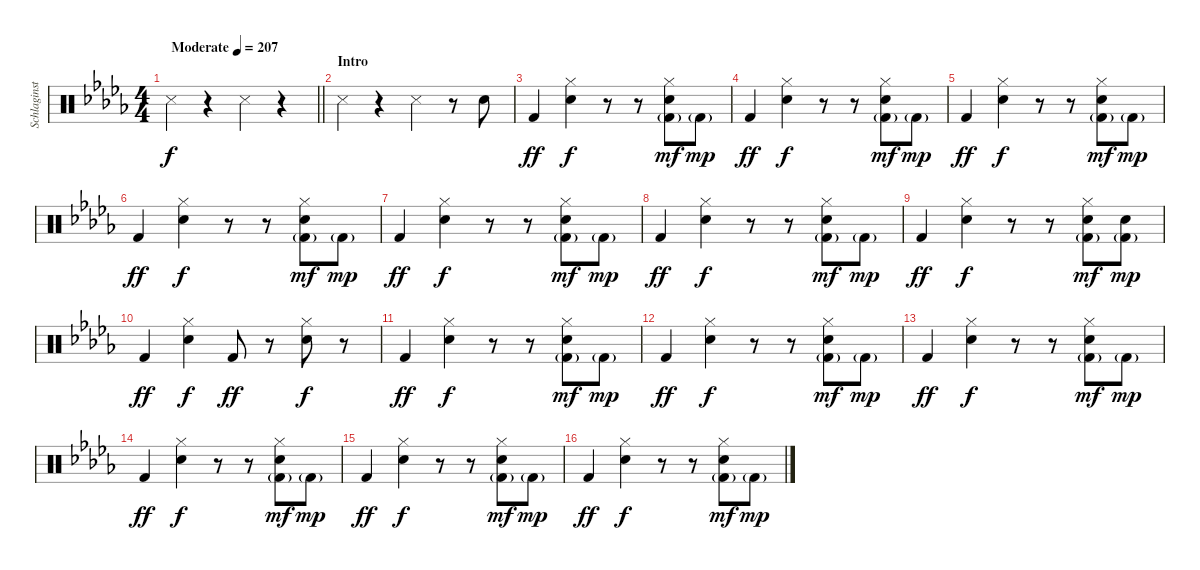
\track ("Schlaginstrumente - Auswahl" "Schlaginst") {instrument percussion}
\staff {score}
\articulation defaults
\ts (4 4)
\tempo (207 "Moderate")
\clef neutral
\barLineRight lightlight
\ks bbminor "Snare (side stick) 3".4{dy f}
r.4 "Snare (side stick) 3".4 r.4 |
\section ("" "Intro")
"Snare (side stick) 3".4 r.4 "Snare (side stick) 3".4 r.8 "Snare (hit) 2".8 |
"Kick (hit) 2".4{dy ff} ("Hi-Hat (closed)" "Snare (hit) 2").4{dy f} r.8 r.8 ("Hi-Hat (closed)" "Snare (hit) 2" "Kick (hit) 2"{g}).8{dy mf} "Kick (hit) 2"{g}.8{dy mp} |
"Kick (hit) 2".4{dy ff} ("Hi-Hat (closed)" "Snare (hit) 2").4{dy f} r.8 r.8 ("Hi-Hat (closed)" "Snare (hit) 2" "Kick (hit) 2"{g}).8{dy mf} "Kick (hit) 2"{g}.8{dy mp} |
"Kick (hit) 2".4{dy ff} ("Hi-Hat (closed)" "Snare (hit) 2").4{dy f} r.8 r.8 ("Hi-Hat (closed)" "Snare (hit) 2" "Kick (hit) 2"{g}).8{dy mf} "Kick (hit) 2"{g}.8{dy mp} |
"Kick (hit) 2".4{dy ff} ("Hi-Hat (closed)" "Snare (hit) 2").4{dy f} r.8 r.8 ("Hi-Hat (closed)" "Snare (hit) 2" "Kick (hit) 2"{g}).8{dy mf} "Kick (hit) 2"{g}.8{dy mp} |
"Kick (hit) 2".4{dy ff} ("Hi-Hat (closed)" "Snare (hit) 2").4{dy f} r.8 r.8 ("Hi-Hat (closed)" "Snare (hit) 2" "Kick (hit) 2"{g}).8{dy mf} "Kick (hit) 2"{g}.8{dy mp} |
"Kick (hit) 2".4{dy ff} ("Hi-Hat (closed)" "Snare (hit) 2").4{dy f} r.8 r.8 ("Hi-Hat (closed)" "Snare (hit) 2" "Kick (hit) 2"{g}).8{dy mf} "Kick (hit) 2"{g}.8{dy mp} |
"Kick (hit) 2".4{dy ff} ("Hi-Hat (closed)" "Snare (hit) 2").4{dy f} r.8 r.8 ("Hi-Hat (closed)" "Snare (hit) 2" "Kick (hit) 2"{g}).8{dy mf} ("Snare (hit) 2" "Kick (hit) 2"{g}).8{dy mp} |
"Kick (hit) 2".4{dy ff} ("Hi-Hat (closed)" "Snare (hit) 2").4{dy f} "Kick (hit) 2".8{dy ff} r.8 ("Hi-Hat (closed)" "Snare (hit) 2").8{dy f} r.8 |
"Kick (hit) 2".4{dy ff} ("Hi-Hat (closed)" "Snare (hit) 2").4{dy f} r.8 r.8 ("Hi-Hat (closed)" "Snare (hit) 2" "Kick (hit) 2"{g}).8{dy mf} "Kick (hit) 2"{g}.8{dy mp} |
"Kick (hit) 2".4{dy ff} ("Hi-Hat (closed)" "Snare (hit) 2").4{dy f} r.8 r.8 ("Hi-Hat (closed)" "Snare (hit) 2" "Kick (hit) 2"{g}).8{dy mf} "Kick (hit) 2"{g}.8{dy mp} |
"Kick (hit) 2".4{dy ff} ("Hi-Hat (closed)" "Snare (hit) 2").4{dy f} r.8 r.8 ("Hi-Hat (closed)" "Snare (hit) 2" "Kick (hit) 2"{g}).8{dy mf} "Kick (hit) 2"{g}.8{dy mp} |
"Kick (hit) 2".4{dy ff} ("Hi-Hat (closed)" "Snare (hit) 2").4{dy f} r.8 r.8 ("Hi-Hat (closed)" "Snare (hit) 2" "Kick (hit) 2"{g}).8{dy mf} "Kick (hit) 2"{g}.8{dy mp} |
"Kick (hit) 2".4{dy ff} ("Hi-Hat (closed)" "Snare (hit) 2").4{dy f} r.8 r.8 ("Hi-Hat (closed)" "Snare (hit) 2" "Kick (hit) 2"{g}).8{dy mf} "Kick (hit) 2"{g}.8{dy mp} |
"Kick (hit) 2".4{dy ff} ("Hi-Hat (closed)" "Snare (hit) 2").4{dy f} r.8 r.8 ("Hi-Hat (closed)" "Snare (hit) 2" "Kick (hit) 2"{g}).8{dy mf} "Kick (hit) 2"{g}.8{dy mp}
